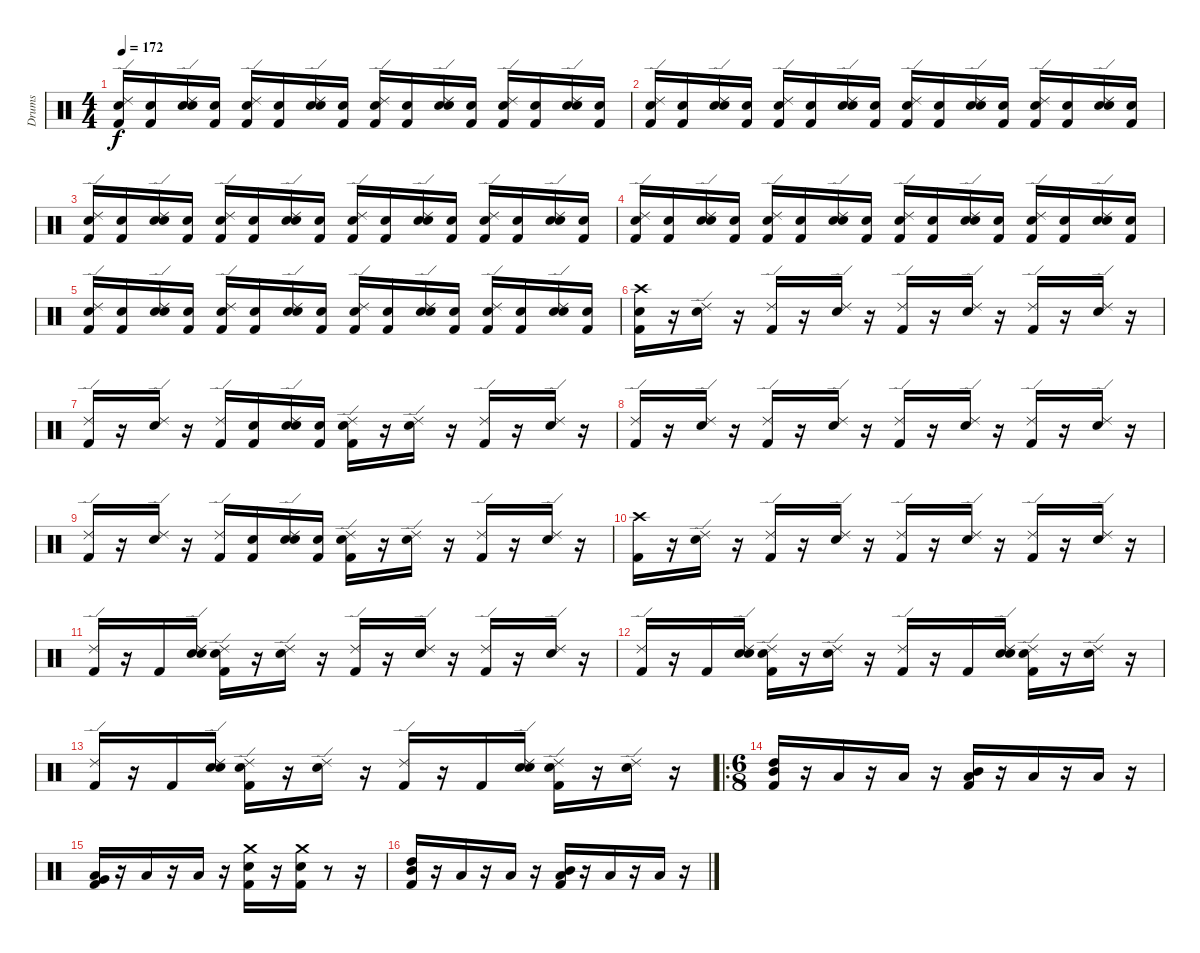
\track ("Drums" "Drums") {instrument percussion}
\staff {score}
\articulation defaults
\ts (4 4)
\tempo 172
\clef neutral
\ks c
("Snare (hit)" "Kick (hit) 2" "Ride (edge) 2").16{dy f} ("Snare (hit)" "Kick (hit) 2").16 ("Snare (hit)" "Snare (hit) 2" "Ride (edge) 2").16 ("Snare (hit)" "Kick (hit) 2").16 ("Snare (hit)" "Kick (hit) 2" "Ride (edge) 2").16 ("Snare (hit)" "Kick (hit) 2").16 ("Snare (hit)" "Snare (hit) 2" "Ride (edge) 2").16 ("Snare (hit)" "Kick (hit) 2").16 ("Snare (hit)" "Kick (hit) 2" "Ride (edge) 2").16 ("Snare (hit)" "Kick (hit) 2").16 ("Snare (hit)" "Snare (hit) 2" "Ride (edge) 2").16 ("Snare (hit)" "Kick (hit) 2").16 ("Snare (hit)" "Kick (hit) 2" "Ride (edge) 2").16 ("Snare (hit)" "Kick (hit) 2").16 ("Snare (hit)" "Snare (hit) 2" "Ride (edge) 2").16 ("Snare (hit)" "Kick (hit) 2").16 |
("Snare (hit)" "Kick (hit) 2" "Ride (edge) 2").16 ("Snare (hit)" "Kick (hit) 2").16 ("Snare (hit)" "Snare (hit) 2" "Ride (edge) 2").16 ("Snare (hit)" "Kick (hit) 2").16 ("Snare (hit)" "Kick (hit) 2" "Ride (edge) 2").16 ("Snare (hit)" "Kick (hit) 2").16 ("Snare (hit)" "Snare (hit) 2" "Ride (edge) 2").16 ("Snare (hit)" "Kick (hit) 2").16 ("Snare (hit)" "Kick (hit) 2" "Ride (edge) 2").16 ("Snare (hit)" "Kick (hit) 2").16 ("Snare (hit)" "Snare (hit) 2" "Ride (edge) 2").16 ("Snare (hit)" "Kick (hit) 2").16 ("Snare (hit)" "Kick (hit) 2" "Ride (edge) 2").16 ("Snare (hit)" "Kick (hit) 2").16 ("Snare (hit)" "Snare (hit) 2" "Ride (edge) 2").16 ("Snare (hit)" "Kick (hit) 2").16 |
("Snare (hit)" "Kick (hit) 2" "Ride (edge) 2").16 ("Snare (hit)" "Kick (hit) 2").16 ("Snare (hit)" "Snare (hit) 2" "Ride (edge) 2").16 ("Snare (hit)" "Kick (hit) 2").16 ("Snare (hit)" "Kick (hit) 2" "Ride (edge) 2").16 ("Snare (hit)" "Kick (hit) 2").16 ("Snare (hit)" "Snare (hit) 2" "Ride (edge) 2").16 ("Snare (hit)" "Kick (hit) 2").16 ("Snare (hit)" "Kick (hit) 2" "Ride (edge) 2").16 ("Snare (hit)" "Kick (hit) 2").16 ("Snare (hit)" "Snare (hit) 2" "Ride (edge) 2").16 ("Snare (hit)" "Kick (hit) 2").16 ("Snare (hit)" "Kick (hit) 2" "Ride (edge) 2").16 ("Snare (hit)" "Kick (hit) 2").16 ("Snare (hit)" "Snare (hit) 2" "Ride (edge) 2").16 ("Snare (hit)" "Kick (hit) 2").16 |
("Snare (hit)" "Kick (hit) 2" "Ride (edge) 2").16 ("Snare (hit)" "Kick (hit) 2").16 ("Snare (hit)" "Snare (hit) 2" "Ride (edge) 2").16 ("Snare (hit)" "Kick (hit) 2").16 ("Snare (hit)" "Kick (hit) 2" "Ride (edge) 2").16 ("Snare (hit)" "Kick (hit) 2").16 ("Snare (hit)" "Snare (hit) 2" "Ride (edge) 2").16 ("Snare (hit)" "Kick (hit) 2").16 ("Snare (hit)" "Kick (hit) 2" "Ride (edge) 2").16 ("Snare (hit)" "Kick (hit) 2").16 ("Snare (hit)" "Snare (hit) 2" "Ride (edge) 2").16 ("Snare (hit)" "Kick (hit) 2").16 ("Snare (hit)" "Kick (hit) 2" "Ride (edge) 2").16 ("Snare (hit)" "Kick (hit) 2").16 ("Snare (hit)" "Snare (hit) 2" "Ride (edge) 2").16 ("Snare (hit)" "Kick (hit) 2").16 |
("Snare (hit)" "Kick (hit) 2" "Ride (edge) 2").16 ("Snare (hit)" "Kick (hit) 2").16 ("Snare (hit)" "Snare (hit) 2" "Ride (edge) 2").16 ("Snare (hit)" "Kick (hit) 2").16 ("Snare (hit)" "Kick (hit) 2" "Ride (edge) 2").16 ("Snare (hit)" "Kick (hit) 2").16 ("Snare (hit)" "Snare (hit) 2" "Ride (edge) 2").16 ("Snare (hit)" "Kick (hit) 2").16 ("Snare (hit)" "Kick (hit) 2" "Ride (edge) 2").16 ("Snare (hit)" "Kick (hit) 2").16 ("Snare (hit)" "Snare (hit) 2" "Ride (edge) 2").16 ("Snare (hit)" "Kick (hit) 2").16 ("Snare (hit)" "Kick (hit) 2" "Ride (edge) 2").16 ("Snare (hit)" "Kick (hit) 2").16 ("Snare (hit)" "Snare (hit) 2" "Ride (edge) 2").16 ("Snare (hit)" "Kick (hit) 2").16 |
("Snare (hit)" "Kick (hit) 2" "Crash high (hit)").16 r.16 ("Snare (hit) 2" "Ride (edge) 2").16 r.16 ("Kick (hit) 2" "Ride (edge) 2").16 r.16 ("Snare (hit) 2" "Ride (edge) 2").16 r.16 ("Kick (hit) 2" "Ride (edge) 2").16 r.16 ("Snare (hit) 2" "Ride (edge) 2").16 r.16 ("Kick (hit) 2" "Ride (edge) 2").16 r.16 ("Snare (hit) 2" "Ride (edge) 2").16 r.16 |
("Kick (hit) 2" "Ride (edge) 2").16 r.16 ("Snare (hit) 2" "Ride (edge) 2").16 r.16 ("Kick (hit) 2" "Ride (edge) 2").16 ("Snare (hit)" "Kick (hit) 2").16 ("Snare (hit)" "Snare (hit) 2" "Ride (edge) 2").16 ("Snare (hit)" "Kick (hit) 2").16 ("Snare (hit)" "Kick (hit) 2" "Ride (edge) 2").16 r.16 ("Snare (hit) 2" "Ride (edge) 2").16 r.16 ("Kick (hit) 2" "Ride (edge) 2").16 r.16 ("Snare (hit) 2" "Ride (edge) 2").16 r.16 |
("Kick (hit) 2" "Ride (edge) 2").16 r.16 ("Snare (hit) 2" "Ride (edge) 2").16 r.16 ("Kick (hit) 2" "Ride (edge) 2").16 r.16 ("Snare (hit) 2" "Ride (edge) 2").16 r.16 ("Kick (hit) 2" "Ride (edge) 2").16 r.16 ("Snare (hit) 2" "Ride (edge) 2").16 r.16 ("Kick (hit) 2" "Ride (edge) 2").16 r.16 ("Snare (hit) 2" "Ride (edge) 2").16 r.16 |
("Kick (hit) 2" "Ride (edge) 2").16 r.16 ("Snare (hit) 2" "Ride (edge) 2").16 r.16 ("Kick (hit) 2" "Ride (edge) 2").16 ("Snare (hit)" "Kick (hit) 2").16 ("Snare (hit)" "Snare (hit) 2" "Ride (edge) 2").16 ("Snare (hit)" "Kick (hit) 2").16 ("Snare (hit)" "Kick (hit) 2" "Ride (edge) 2").16 r.16 ("Snare (hit) 2" "Ride (edge) 2").16 r.16 ("Kick (hit) 2" "Ride (edge) 2").16 r.16 ("Snare (hit) 2" "Ride (edge) 2").16 r.16 |
("Kick (hit) 2" "Crash high (hit)").16 r.16 ("Snare (hit) 2" "Ride (edge) 2").16 r.16 ("Kick (hit) 2" "Ride (edge) 2").16 r.16 ("Snare (hit) 2" "Ride (edge) 2").16 r.16 ("Kick (hit) 2" "Ride (edge) 2").16 r.16 ("Snare (hit) 2" "Ride (edge) 2").16 r.16 ("Kick (hit) 2" "Ride (edge) 2").16 r.16 ("Snare (hit) 2" "Ride (edge) 2").16 r.16 |
("Kick (hit) 2" "Ride (edge) 2").16 r.16 "Kick (hit) 2".16 ("Snare (hit)" "Snare (hit) 2" "Ride (edge) 2").16 ("Snare (hit)" "Kick (hit) 2" "Ride (edge) 2").16 r.16 ("Snare (hit) 2" "Ride (edge) 2").16 r.16 ("Kick (hit) 2" "Ride (edge) 2").16 r.16 ("Snare (hit) 2" "Ride (edge) 2").16 r.16 ("Kick (hit) 2" "Ride (edge) 2").16 r.16 ("Snare (hit) 2" "Ride (edge) 2").16 r.16 |
("Kick (hit) 2" "Ride (edge) 2").16 r.16 "Kick (hit) 2".16 ("Snare (hit)" "Snare (hit) 2" "Ride (edge) 2").16 ("Snare (hit)" "Kick (hit) 2" "Ride (edge) 2").16 r.16 ("Snare (hit) 2" "Ride (edge) 2").16 r.16 ("Kick (hit) 2" "Ride (edge) 2").16 r.16 "Kick (hit) 2".16 ("Snare (hit)" "Snare (hit) 2" "Ride (edge) 2").16 ("Snare (hit)" "Kick (hit) 2" "Ride (edge) 2").16 r.16 ("Snare (hit) 2" "Ride (edge) 2").16 r.16 |
("Kick (hit) 2" "Ride (edge) 2").16 r.16 "Kick (hit) 2".16 ("Snare (hit)" "Snare (hit) 2" "Ride (edge) 2").16 ("Snare (hit)" "Kick (hit) 2" "Ride (edge) 2").16 r.16 ("Snare (hit) 2" "Ride (edge) 2").16 r.16 ("Kick (hit) 2" "Ride (edge) 2").16 r.16 "Kick (hit) 2".16 ("Snare (hit)" "Snare (hit) 2" "Ride (edge) 2").16 ("Snare (hit)" "Kick (hit) 2" "Ride (edge) 2").16 r.16 ("Snare (hit) 2" "Ride (edge) 2").16 r.16 |
\ro
\ts (6 8)
("Kick (hit) 2" "Mid Tom (hit)" "High Tom (hit)").16 r.16 "Low Floor Tom (hit)".16 r.16 "Low Floor Tom (hit)".16 r.16 ("Kick (hit) 2" "Low Tom (hit)" "Mid Tom (hit)").16 r.16 "Low Floor Tom (hit)".16 r.16 "Low Floor Tom (hit)".16 r.16 |
("Kick (hit) 2" "Very Low Tom (hit)" "Low Tom (hit)").16 r.16 "Low Floor Tom (hit)".16 r.16 "Low Floor Tom (hit)".16 r.16 ("Kick (hit) 2" "Snare (hit) 2" "Crash medium (hit)").16 r.16 ("Kick (hit) 2" "Snare (hit) 2" "Crash medium (hit)").16 r.8 r.16 |
("Kick (hit) 2" "Mid Tom (hit)" "High Tom (hit)").16 r.16 "Low Floor Tom (hit)".16 r.16 "Low Floor Tom (hit)".16 r.16 ("Kick (hit) 2" "Low Tom (hit)" "Mid Tom (hit)").16 r.16 "Low Floor Tom (hit)".16 r.16 "Low Floor Tom (hit)".16 r.16
